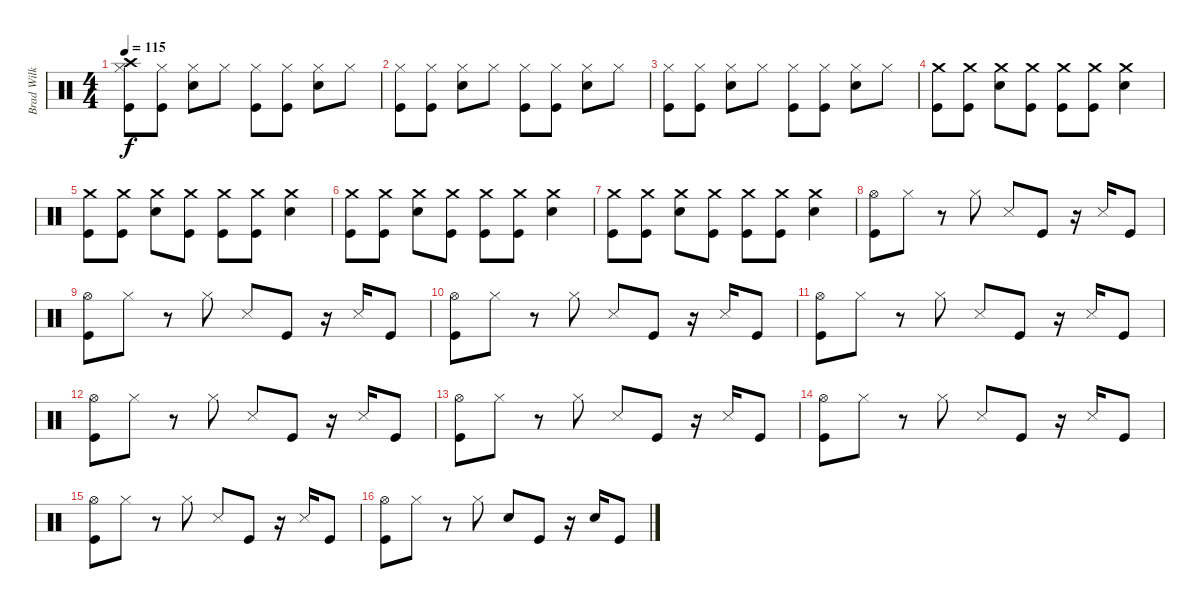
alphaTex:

\track ("Brad Wilk - Drums" "Brad Wilk ") {instrument percussion}
\staff {score}
\articulation defaults
\ts (4 4)
\tempo 115
\clef neutral
\ks c
("Crash high (hit)" "Hi-Hat (closed)" "Kick (hit)").8{dy f} ("Hi-Hat (closed)" "Kick (hit)").8 ("Snare (hit) 2" "Hi-Hat (closed)").8 "Hi-Hat (closed)".8 ("Hi-Hat (closed)" "Kick (hit)").8 ("Hi-Hat (closed)" "Kick (hit)").8 ("Snare (hit) 2" "Hi-Hat (closed)").8 "Hi-Hat (closed)".8 |
("Hi-Hat (closed)" "Kick (hit)").8 ("Hi-Hat (closed)" "Kick (hit)").8 ("Snare (hit) 2" "Hi-Hat (closed)").8 "Hi-Hat (closed)".8 ("Hi-Hat (closed)" "Kick (hit)").8 ("Hi-Hat (closed)" "Kick (hit)").8 ("Snare (hit) 2" "Hi-Hat (closed)").8 "Hi-Hat (closed)".8 |
("Hi-Hat (closed)" "Kick (hit)").8 ("Hi-Hat (closed)" "Kick (hit)").8 ("Snare (hit) 2" "Hi-Hat (closed)").8 "Hi-Hat (closed)".8 ("Hi-Hat (closed)" "Kick (hit)").8 ("Hi-Hat (closed)" "Kick (hit)").8 ("Snare (hit) 2" "Hi-Hat (closed)").8 "Hi-Hat (closed)".8 |
("Crash medium (hit)" "Kick (hit)").8 ("Crash medium (hit)" "Kick (hit)").8 ("Snare (hit) 2" "Crash medium (hit)").8 ("Crash medium (hit)" "Kick (hit)").8 ("Crash medium (hit)" "Kick (hit)").8 ("Crash medium (hit)" "Kick (hit)").8 ("Snare (hit) 2" "Crash medium (hit)").4 |
("Crash medium (hit)" "Kick (hit)").8 ("Crash medium (hit)" "Kick (hit)").8 ("Snare (hit) 2" "Crash medium (hit)").8 ("Crash medium (hit)" "Kick (hit)").8 ("Crash medium (hit)" "Kick (hit)").8 ("Crash medium (hit)" "Kick (hit)").8 ("Snare (hit) 2" "Crash medium (hit)").4 |
("Crash medium (hit)" "Kick (hit)").8 ("Crash medium (hit)" "Kick (hit)").8 ("Snare (hit) 2" "Crash medium (hit)").8 ("Crash medium (hit)" "Kick (hit)").8 ("Crash medium (hit)" "Kick (hit)").8 ("Crash medium (hit)" "Kick (hit)").8 ("Snare (hit) 2" "Crash medium (hit)").4 |
("Crash medium (hit)" "Kick (hit)").8 ("Crash medium (hit)" "Kick (hit)").8 ("Snare (hit) 2" "Crash medium (hit)").8 ("Crash medium (hit)" "Kick (hit)").8 ("Crash medium (hit)" "Kick (hit)").8 ("Crash medium (hit)" "Kick (hit)").8 ("Snare (hit) 2" "Crash medium (hit)").4 |
("Hi-Hat (open)" "Kick (hit)").8 "Hi-Hat (closed)".8 r.8 "Hi-Hat (closed)".8 "Snare (side stick) 3".8 "Kick (hit)".8 r.16 "Snare (side stick) 3".16 "Kick (hit)".8 |
("Hi-Hat (open)" "Kick (hit)").8 "Hi-Hat (closed)".8 r.8 "Hi-Hat (closed)".8 "Snare (side stick) 3".8 "Kick (hit)".8 r.16 "Snare (side stick) 3".16 "Kick (hit)".8 |
("Hi-Hat (open)" "Kick (hit)").8 "Hi-Hat (closed)".8 r.8 "Hi-Hat (closed)".8 "Snare (side stick) 3".8 "Kick (hit)".8 r.16 "Snare (side stick) 3".16 "Kick (hit)".8 |
("Hi-Hat (open)" "Kick (hit)").8 "Hi-Hat (closed)".8 r.8 "Hi-Hat (closed)".8 "Snare (side stick) 3".8 "Kick (hit)".8 r.16 "Snare (side stick) 3".16 "Kick (hit)".8 |
("Hi-Hat (open)" "Kick (hit)").8 "Hi-Hat (closed)".8 r.8 "Hi-Hat (closed)".8 "Snare (side stick) 3".8 "Kick (hit)".8 r.16 "Snare (side stick) 3".16 "Kick (hit)".8 |
("Hi-Hat (open)" "Kick (hit)").8 "Hi-Hat (closed)".8 r.8 "Hi-Hat (closed)".8 "Snare (side stick) 3".8 "Kick (hit)".8 r.16 "Snare (side stick) 3".16 "Kick (hit)".8 |
("Hi-Hat (open)" "Kick (hit)").8 "Hi-Hat (closed)".8 r.8 "Hi-Hat (closed)".8 "Snare (side stick) 3".8 "Kick (hit)".8 r.16 "Snare (side stick) 3".16 "Kick (hit)".8 |
("Hi-Hat (open)" "Kick (hit)").8 "Hi-Hat (closed)".8 r.8 "Hi-Hat (closed)".8 "Snare (side stick) 3".8 "Kick (hit)".8 r.16 "Snare (side stick) 3".16 "Kick (hit)".8 |
("Hi-Hat (open)" "Kick (hit)").8 "Hi-Hat (closed)".8 r.8 "Hi-Hat (closed)".8 "Snare (hit) 2".8 "Kick (hit)".8 r.16 "Snare (hit) 2".16 "Kick (hit)".8
